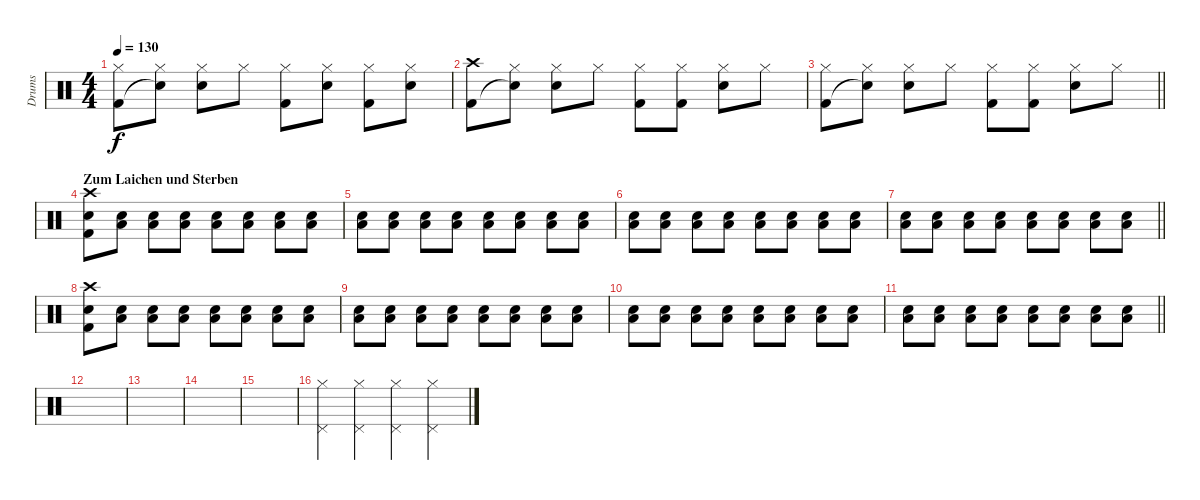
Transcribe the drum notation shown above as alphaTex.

\track ("Drums" "Drums") {instrument percussion}
\staff {score}
\articulation defaults
\ts (4 4)
\tempo 130
\clef neutral
\ks c
("Hi-Hat (closed)" "Kick (hit) 2").8{dy f} ("Hi-Hat (closed)" "Snare (hit)"{t}).8 ("Hi-Hat (closed)" "Snare (hit) 2").8 "Hi-Hat (closed)".8 ("Hi-Hat (closed)" "Kick (hit) 2").8 ("Hi-Hat (closed)" "Snare (hit) 2").8 ("Hi-Hat (closed)" "Kick (hit) 2").8 ("Hi-Hat (closed)" "Snare (hit) 2").8 |
("Crash high (hit)" "Kick (hit) 2").8 ("Hi-Hat (closed)" "Snare (hit)"{t}).8 ("Hi-Hat (closed)" "Snare (hit) 2").8 "Hi-Hat (closed)".8 ("Hi-Hat (closed)" "Kick (hit) 2").8 ("Hi-Hat (closed)" "Kick (hit) 2").8 ("Hi-Hat (closed)" "Snare (hit) 2").8 "Hi-Hat (closed)".8 |
\barLineRight lightlight
("Hi-Hat (closed)" "Kick (hit) 2").8 ("Hi-Hat (closed)" "Snare (hit)"{t}).8 ("Hi-Hat (closed)" "Snare (hit) 2").8 "Hi-Hat (closed)".8 ("Hi-Hat (closed)" "Kick (hit) 2").8 ("Hi-Hat (closed)" "Kick (hit) 2").8 ("Hi-Hat (closed)" "Snare (hit) 2").8 "Hi-Hat (closed)".8 |
\section ("" "Zum Laichen und Sterben")
("Crash high (hit)" "Snare (hit) 2" "Kick (hit) 2").8 ("Snare (hit) 2" "Low Floor Tom (hit)").8 ("Snare (hit) 2" "Low Floor Tom (hit)").8 ("Snare (hit) 2" "Low Floor Tom (hit)").8 ("Snare (hit) 2" "Low Floor Tom (hit)").8 ("Snare (hit) 2" "Low Floor Tom (hit)").8 ("Snare (hit) 2" "Low Floor Tom (hit)").8 ("Snare (hit) 2" "Low Floor Tom (hit)").8 |
("Snare (hit) 2" "Low Floor Tom (hit)").8 ("Snare (hit) 2" "Low Floor Tom (hit)").8 ("Snare (hit) 2" "Low Floor Tom (hit)").8 ("Snare (hit) 2" "Low Floor Tom (hit)").8 ("Snare (hit) 2" "Low Floor Tom (hit)").8 ("Snare (hit) 2" "Low Floor Tom (hit)").8 ("Snare (hit) 2" "Low Floor Tom (hit)").8 ("Snare (hit) 2" "Low Floor Tom (hit)").8 |
("Snare (hit) 2" "Low Floor Tom (hit)").8 ("Snare (hit) 2" "Low Floor Tom (hit)").8 ("Snare (hit) 2" "Low Floor Tom (hit)").8 ("Snare (hit) 2" "Low Floor Tom (hit)").8 ("Snare (hit) 2" "Low Floor Tom (hit)").8 ("Snare (hit) 2" "Low Floor Tom (hit)").8 ("Snare (hit) 2" "Low Floor Tom (hit)").8 ("Snare (hit) 2" "Low Floor Tom (hit)").8 |
\barLineRight lightlight
("Snare (hit) 2" "Low Floor Tom (hit)").8 ("Snare (hit) 2" "Low Floor Tom (hit)").8 ("Snare (hit) 2" "Low Floor Tom (hit)").8 ("Snare (hit) 2" "Low Floor Tom (hit)").8 ("Snare (hit) 2" "Low Floor Tom (hit)").8 ("Snare (hit) 2" "Low Floor Tom (hit)").8 ("Snare (hit) 2" "Low Floor Tom (hit)").8 ("Snare (hit) 2" "Low Floor Tom (hit)").8 |
("Crash high (hit)" "Snare (hit) 2" "Kick (hit) 2").8 ("Snare (hit) 2" "Low Floor Tom (hit)").8 ("Snare (hit) 2" "Low Floor Tom (hit)").8 ("Snare (hit) 2" "Low Floor Tom (hit)").8 ("Snare (hit) 2" "Low Floor Tom (hit)").8 ("Snare (hit) 2" "Low Floor Tom (hit)").8 ("Snare (hit) 2" "Low Floor Tom (hit)").8 ("Snare (hit) 2" "Low Floor Tom (hit)").8 |
("Snare (hit) 2" "Low Floor Tom (hit)").8 ("Snare (hit) 2" "Low Floor Tom (hit)").8 ("Snare (hit) 2" "Low Floor Tom (hit)").8 ("Snare (hit) 2" "Low Floor Tom (hit)").8 ("Snare (hit) 2" "Low Floor Tom (hit)").8 ("Snare (hit) 2" "Low Floor Tom (hit)").8 ("Snare (hit) 2" "Low Floor Tom (hit)").8 ("Snare (hit) 2" "Low Floor Tom (hit)").8 |
("Snare (hit) 2" "Low Floor Tom (hit)").8 ("Snare (hit) 2" "Low Floor Tom (hit)").8 ("Snare (hit) 2" "Low Floor Tom (hit)").8 ("Snare (hit) 2" "Low Floor Tom (hit)").8 ("Snare (hit) 2" "Low Floor Tom (hit)").8 ("Snare (hit) 2" "Low Floor Tom (hit)").8 ("Snare (hit) 2" "Low Floor Tom (hit)").8 ("Snare (hit) 2" "Low Floor Tom (hit)").8 |
\barLineRight lightlight
("Snare (hit) 2" "Low Floor Tom (hit)").8 ("Snare (hit) 2" "Low Floor Tom (hit)").8 ("Snare (hit) 2" "Low Floor Tom (hit)").8 ("Snare (hit) 2" "Low Floor Tom (hit)").8 ("Snare (hit) 2" "Low Floor Tom (hit)").8 ("Snare (hit) 2" "Low Floor Tom (hit)").8 ("Snare (hit) 2" "Low Floor Tom (hit)").8 ("Snare (hit) 2" "Low Floor Tom (hit)").8 |
|
|
|
|
("Pedal Hi-Hat (hit)" "Hi-Hat (closed)").4 ("Pedal Hi-Hat (hit)" "Hi-Hat (closed)").4 ("Pedal Hi-Hat (hit)" "Hi-Hat (closed)").4 ("Pedal Hi-Hat (hit)" "Hi-Hat (closed)").4
